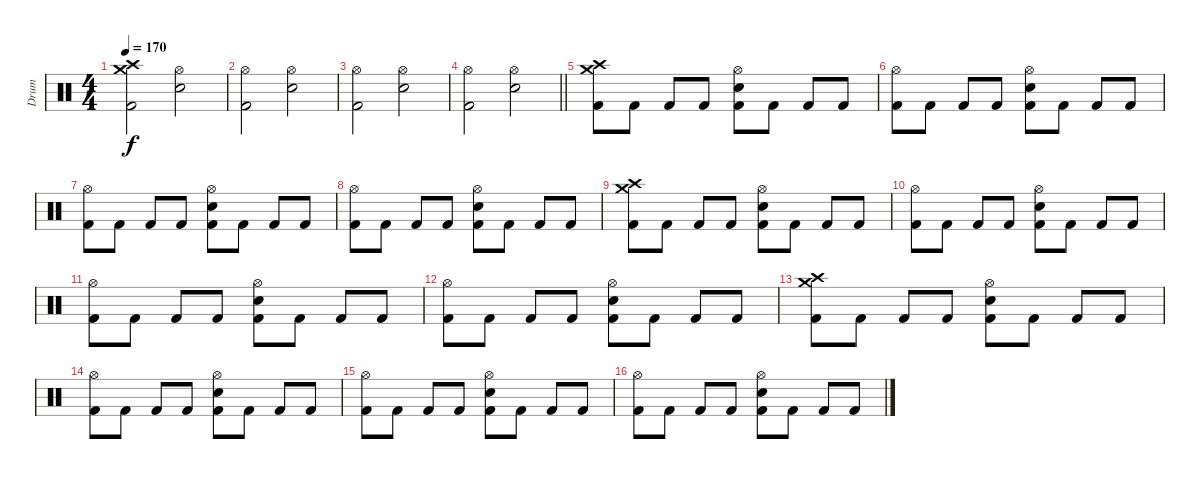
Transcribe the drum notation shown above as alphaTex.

\track ("Drum" "Drum") {instrument percussion}
\staff {score}
\articulation defaults
\ts (4 4)
\tempo 170
\clef neutral
\ks c
("Crash high (hit)" "Kick (hit) 2" "Crash medium (hit)").2{dy f} ("Snare (hit) 2" "Hi-Hat (open)").2 |
("Kick (hit) 2" "Hi-Hat (open)").2 ("Snare (hit) 2" "Hi-Hat (open)").2 |
("Kick (hit) 2" "Hi-Hat (open)").2 ("Snare (hit) 2" "Hi-Hat (open)").2 |
\barLineRight lightlight
("Kick (hit) 2" "Hi-Hat (open)").2 ("Snare (hit) 2" "Hi-Hat (open)").2 |
\section ("" "")
("Crash high (hit)" "Crash medium (hit)" "Kick (hit) 2").8 "Kick (hit) 2".8 "Kick (hit) 2".8 "Kick (hit) 2".8 ("Hi-Hat (open)" "Snare (hit) 2" "Kick (hit) 2").8 "Kick (hit) 2".8 "Kick (hit) 2".8 "Kick (hit) 2".8 |
("Hi-Hat (open)" "Kick (hit) 2").8 "Kick (hit) 2".8 "Kick (hit) 2".8 "Kick (hit) 2".8 ("Hi-Hat (open)" "Snare (hit) 2" "Kick (hit) 2").8 "Kick (hit) 2".8 "Kick (hit) 2".8 "Kick (hit) 2".8 |
("Hi-Hat (open)" "Kick (hit) 2").8 "Kick (hit) 2".8 "Kick (hit) 2".8 "Kick (hit) 2".8 ("Hi-Hat (open)" "Snare (hit) 2" "Kick (hit) 2").8 "Kick (hit) 2".8 "Kick (hit) 2".8 "Kick (hit) 2".8 |
("Hi-Hat (open)" "Kick (hit) 2").8 "Kick (hit) 2".8 "Kick (hit) 2".8 "Kick (hit) 2".8 ("Hi-Hat (open)" "Snare (hit) 2" "Kick (hit) 2").8 "Kick (hit) 2".8 "Kick (hit) 2".8 "Kick (hit) 2".8 |
("Crash high (hit)" "Crash medium (hit)" "Kick (hit) 2").8 "Kick (hit) 2".8 "Kick (hit) 2".8 "Kick (hit) 2".8 ("Hi-Hat (open)" "Snare (hit) 2" "Kick (hit) 2").8 "Kick (hit) 2".8 "Kick (hit) 2".8 "Kick (hit) 2".8 |
("Hi-Hat (open)" "Kick (hit) 2").8 "Kick (hit) 2".8 "Kick (hit) 2".8 "Kick (hit) 2".8 ("Hi-Hat (open)" "Snare (hit) 2" "Kick (hit) 2").8 "Kick (hit) 2".8 "Kick (hit) 2".8 "Kick (hit) 2".8 |
("Hi-Hat (open)" "Kick (hit) 2").8 "Kick (hit) 2".8 "Kick (hit) 2".8 "Kick (hit) 2".8 ("Hi-Hat (open)" "Snare (hit) 2" "Kick (hit) 2").8 "Kick (hit) 2".8 "Kick (hit) 2".8 "Kick (hit) 2".8 |
("Hi-Hat (open)" "Kick (hit) 2").8 "Kick (hit) 2".8 "Kick (hit) 2".8 "Kick (hit) 2".8 ("Hi-Hat (open)" "Snare (hit) 2" "Kick (hit) 2").8 "Kick (hit) 2".8 "Kick (hit) 2".8 "Kick (hit) 2".8 |
("Crash high (hit)" "Crash medium (hit)" "Kick (hit) 2").8 "Kick (hit) 2".8 "Kick (hit) 2".8 "Kick (hit) 2".8 ("Hi-Hat (open)" "Snare (hit) 2" "Kick (hit) 2").8 "Kick (hit) 2".8 "Kick (hit) 2".8 "Kick (hit) 2".8 |
("Hi-Hat (open)" "Kick (hit) 2").8 "Kick (hit) 2".8 "Kick (hit) 2".8 "Kick (hit) 2".8 ("Hi-Hat (open)" "Snare (hit) 2" "Kick (hit) 2").8 "Kick (hit) 2".8 "Kick (hit) 2".8 "Kick (hit) 2".8 |
("Hi-Hat (open)" "Kick (hit) 2").8 "Kick (hit) 2".8 "Kick (hit) 2".8 "Kick (hit) 2".8 ("Hi-Hat (open)" "Snare (hit) 2" "Kick (hit) 2").8 "Kick (hit) 2".8 "Kick (hit) 2".8 "Kick (hit) 2".8 |
("Hi-Hat (open)" "Kick (hit) 2").8 "Kick (hit) 2".8 "Kick (hit) 2".8 "Kick (hit) 2".8 ("Hi-Hat (open)" "Snare (hit) 2" "Kick (hit) 2").8 "Kick (hit) 2".8 "Kick (hit) 2".8 "Kick (hit) 2".8
